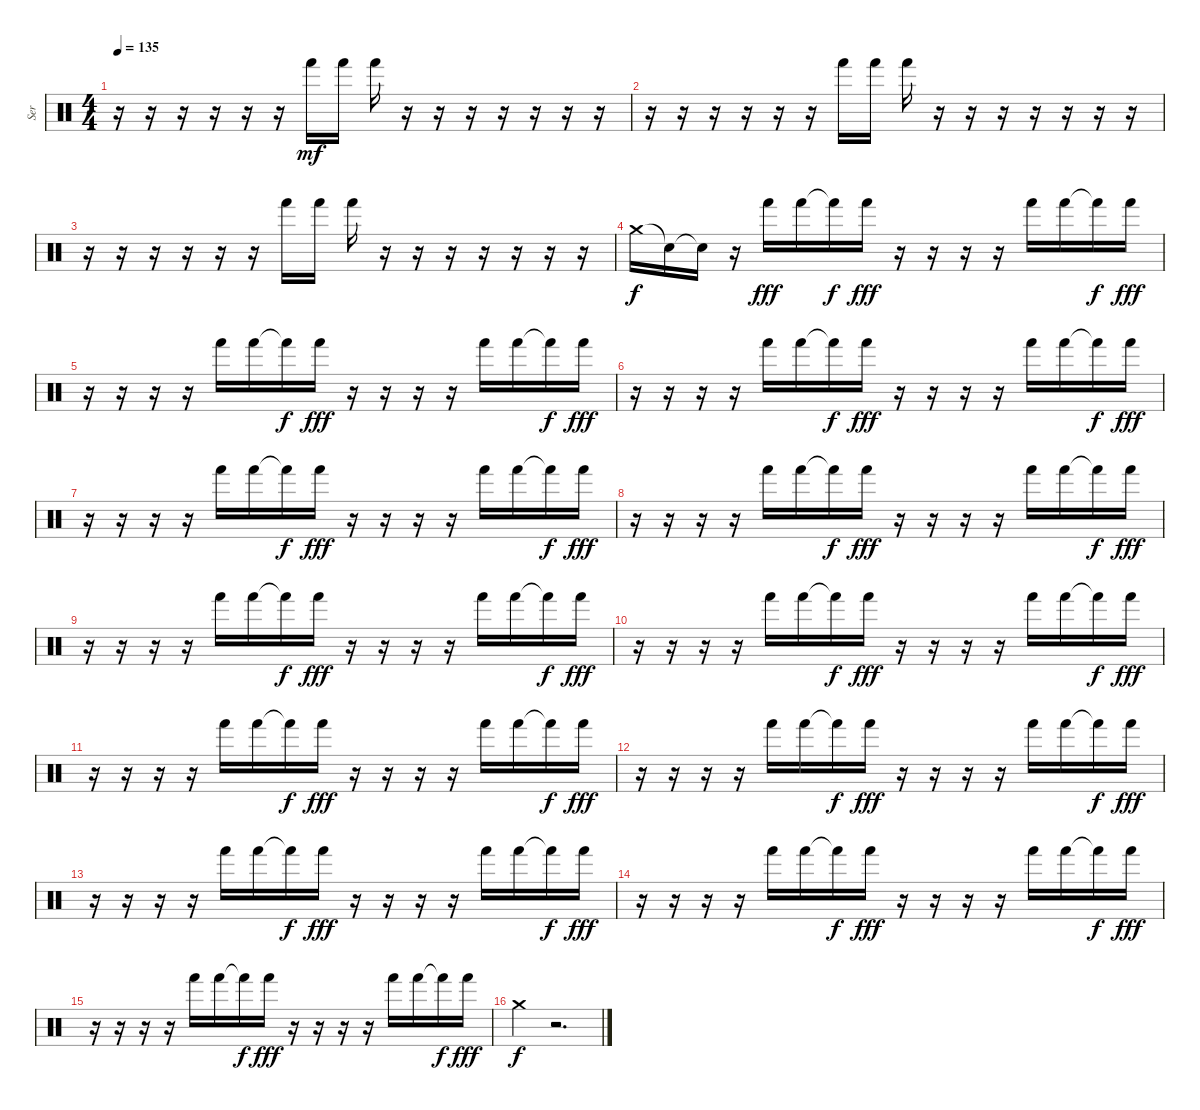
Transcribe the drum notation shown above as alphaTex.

\track ("Ser" "Ser") {instrument percussion}
\staff {score}
\articulation defaults
\ts (4 4)
\tempo 135
\clef neutral
\ks c
r.16{dy mf} r.16 r.16 r.16 r.16 r.16 "Hand (hit)".16 "Hand (hit)".16 "Hand (hit)".16 r.16 r.16 r.16 r.16 r.16 r.16 r.16 |
r.16 r.16 r.16 r.16 r.16 r.16 "Hand (hit)".16 "Hand (hit)".16 "Hand (hit)".16 r.16 r.16 r.16 r.16 r.16 r.16 r.16 |
r.16 r.16 r.16 r.16 r.16 r.16 "Hand (hit)".16 "Hand (hit)".16 "Hand (hit)".16 r.16 r.16 r.16 r.16 r.16 r.16 r.16 |
"Crash medium (hit)".16{dy f} "Snare (hit)"{t}.16 "Snare (hit)"{t}.16 r.16 "Hand (hit)".16{dy fff} "Hand (hit)".16 "Hand (hit)"{t}.16{dy f} "Hand (hit)".16{dy fff} r.16 r.16 r.16 r.16 "Hand (hit)".16 "Hand (hit)".16 "Hand (hit)"{t}.16{dy f} "Hand (hit)".16{dy fff} |
r.16 r.16 r.16 r.16 "Hand (hit)".16 "Hand (hit)".16 "Hand (hit)"{t}.16{dy f} "Hand (hit)".16{dy fff} r.16 r.16 r.16 r.16 "Hand (hit)".16 "Hand (hit)".16 "Hand (hit)"{t}.16{dy f} "Hand (hit)".16{dy fff} |
r.16 r.16 r.16 r.16 "Hand (hit)".16 "Hand (hit)".16 "Hand (hit)"{t}.16{dy f} "Hand (hit)".16{dy fff} r.16 r.16 r.16 r.16 "Hand (hit)".16 "Hand (hit)".16 "Hand (hit)"{t}.16{dy f} "Hand (hit)".16{dy fff} |
r.16 r.16 r.16 r.16 "Hand (hit)".16 "Hand (hit)".16 "Hand (hit)"{t}.16{dy f} "Hand (hit)".16{dy fff} r.16 r.16 r.16 r.16 "Hand (hit)".16 "Hand (hit)".16 "Hand (hit)"{t}.16{dy f} "Hand (hit)".16{dy fff} |
r.16 r.16 r.16 r.16 "Hand (hit)".16 "Hand (hit)".16 "Hand (hit)"{t}.16{dy f} "Hand (hit)".16{dy fff} r.16 r.16 r.16 r.16 "Hand (hit)".16 "Hand (hit)".16 "Hand (hit)"{t}.16{dy f} "Hand (hit)".16{dy fff} |
r.16 r.16 r.16 r.16 "Hand (hit)".16 "Hand (hit)".16 "Hand (hit)"{t}.16{dy f} "Hand (hit)".16{dy fff} r.16 r.16 r.16 r.16 "Hand (hit)".16 "Hand (hit)".16 "Hand (hit)"{t}.16{dy f} "Hand (hit)".16{dy fff} |
r.16 r.16 r.16 r.16 "Hand (hit)".16 "Hand (hit)".16 "Hand (hit)"{t}.16{dy f} "Hand (hit)".16{dy fff} r.16 r.16 r.16 r.16 "Hand (hit)".16 "Hand (hit)".16 "Hand (hit)"{t}.16{dy f} "Hand (hit)".16{dy fff} |
r.16 r.16 r.16 r.16 "Hand (hit)".16 "Hand (hit)".16 "Hand (hit)"{t}.16{dy f} "Hand (hit)".16{dy fff} r.16 r.16 r.16 r.16 "Hand (hit)".16 "Hand (hit)".16 "Hand (hit)"{t}.16{dy f} "Hand (hit)".16{dy fff} |
r.16 r.16 r.16 r.16 "Hand (hit)".16 "Hand (hit)".16 "Hand (hit)"{t}.16{dy f} "Hand (hit)".16{dy fff} r.16 r.16 r.16 r.16 "Hand (hit)".16 "Hand (hit)".16 "Hand (hit)"{t}.16{dy f} "Hand (hit)".16{dy fff} |
r.16 r.16 r.16 r.16 "Hand (hit)".16 "Hand (hit)".16 "Hand (hit)"{t}.16{dy f} "Hand (hit)".16{dy fff} r.16 r.16 r.16 r.16 "Hand (hit)".16 "Hand (hit)".16 "Hand (hit)"{t}.16{dy f} "Hand (hit)".16{dy fff} |
r.16 r.16 r.16 r.16 "Hand (hit)".16 "Hand (hit)".16 "Hand (hit)"{t}.16{dy f} "Hand (hit)".16{dy fff} r.16 r.16 r.16 r.16 "Hand (hit)".16 "Hand (hit)".16 "Hand (hit)"{t}.16{dy f} "Hand (hit)".16{dy fff} |
r.16 r.16 r.16 r.16 "Hand (hit)".16 "Hand (hit)".16 "Hand (hit)"{t}.16{dy f} "Hand (hit)".16{dy fff} r.16 r.16 r.16 r.16 "Hand (hit)".16 "Hand (hit)".16 "Hand (hit)"{t}.16{dy f} "Hand (hit)".16{dy fff} |
"Crash medium (hit)".4{dy f} r.2{d}
